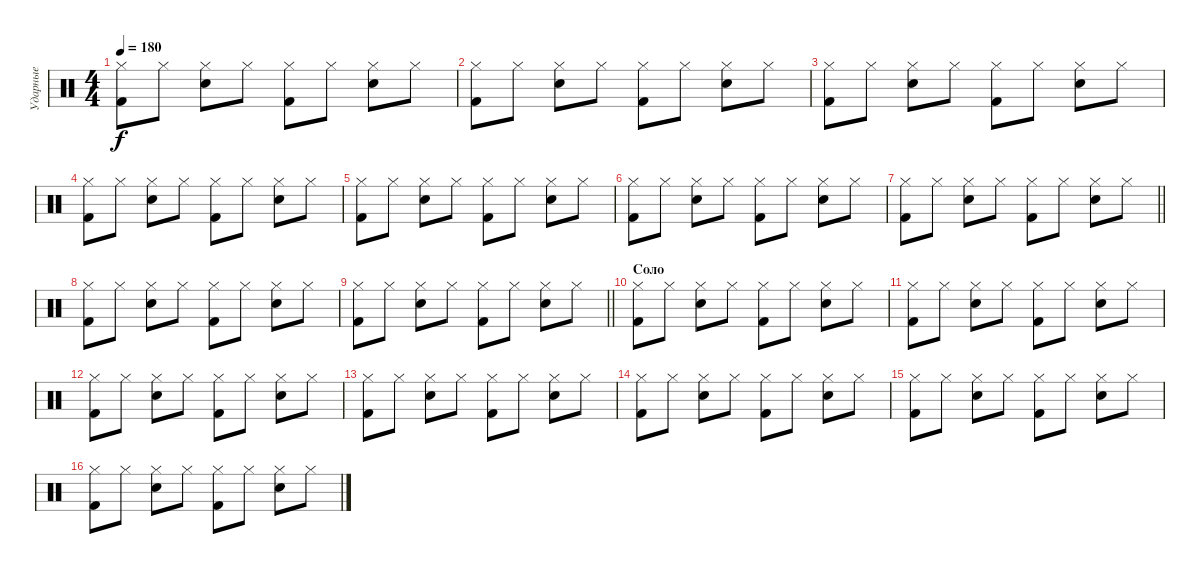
\track ("Ударные" "Ударные") {instrument percussion}
\staff {score}
\articulation defaults
\ts (4 4)
\tempo 180
\clef neutral
\ks c
("Hi-Hat (closed)" "Kick (hit) 2").8{dy f} "Hi-Hat (closed)".8 ("Hi-Hat (closed)" "Electric Snare (hit)").8 "Hi-Hat (closed)".8 ("Hi-Hat (closed)" "Kick (hit) 2").8 "Hi-Hat (closed)".8 ("Hi-Hat (closed)" "Electric Snare (hit)").8 "Hi-Hat (closed)".8 |
("Hi-Hat (closed)" "Kick (hit) 2").8 "Hi-Hat (closed)".8 ("Hi-Hat (closed)" "Electric Snare (hit)").8 "Hi-Hat (closed)".8 ("Hi-Hat (closed)" "Kick (hit) 2").8 "Hi-Hat (closed)".8 ("Hi-Hat (closed)" "Electric Snare (hit)").8 "Hi-Hat (closed)".8 |
("Hi-Hat (closed)" "Kick (hit) 2").8 "Hi-Hat (closed)".8 ("Hi-Hat (closed)" "Electric Snare (hit)").8 "Hi-Hat (closed)".8 ("Hi-Hat (closed)" "Kick (hit) 2").8 "Hi-Hat (closed)".8 ("Hi-Hat (closed)" "Electric Snare (hit)").8 "Hi-Hat (closed)".8 |
("Hi-Hat (closed)" "Kick (hit) 2").8 "Hi-Hat (closed)".8 ("Hi-Hat (closed)" "Electric Snare (hit)").8 "Hi-Hat (closed)".8 ("Hi-Hat (closed)" "Kick (hit) 2").8 "Hi-Hat (closed)".8 ("Hi-Hat (closed)" "Electric Snare (hit)").8 "Hi-Hat (closed)".8 |
("Hi-Hat (closed)" "Kick (hit) 2").8 "Hi-Hat (closed)".8 ("Hi-Hat (closed)" "Electric Snare (hit)").8 "Hi-Hat (closed)".8 ("Hi-Hat (closed)" "Kick (hit) 2").8 "Hi-Hat (closed)".8 ("Hi-Hat (closed)" "Electric Snare (hit)").8 "Hi-Hat (closed)".8 |
("Hi-Hat (closed)" "Kick (hit) 2").8 "Hi-Hat (closed)".8 ("Hi-Hat (closed)" "Electric Snare (hit)").8 "Hi-Hat (closed)".8 ("Hi-Hat (closed)" "Kick (hit) 2").8 "Hi-Hat (closed)".8 ("Hi-Hat (closed)" "Electric Snare (hit)").8 "Hi-Hat (closed)".8 |
\barLineRight lightlight
("Hi-Hat (closed)" "Kick (hit) 2").8 "Hi-Hat (closed)".8 ("Hi-Hat (closed)" "Electric Snare (hit)").8 "Hi-Hat (closed)".8 ("Hi-Hat (closed)" "Kick (hit) 2").8 "Hi-Hat (closed)".8 ("Hi-Hat (closed)" "Electric Snare (hit)").8 "Hi-Hat (closed)".8 |
("Hi-Hat (closed)" "Kick (hit) 2").8 "Hi-Hat (closed)".8 ("Hi-Hat (closed)" "Electric Snare (hit)").8 "Hi-Hat (closed)".8 ("Hi-Hat (closed)" "Kick (hit) 2").8 "Hi-Hat (closed)".8 ("Hi-Hat (closed)" "Electric Snare (hit)").8 "Hi-Hat (closed)".8 |
\barLineRight lightlight
("Hi-Hat (closed)" "Kick (hit) 2").8 "Hi-Hat (closed)".8 ("Hi-Hat (closed)" "Electric Snare (hit)").8 "Hi-Hat (closed)".8 ("Hi-Hat (closed)" "Kick (hit) 2").8 "Hi-Hat (closed)".8 ("Hi-Hat (closed)" "Electric Snare (hit)").8 "Hi-Hat (closed)".8 |
\section ("" "Соло")
("Hi-Hat (closed)" "Kick (hit) 2").8 "Hi-Hat (closed)".8 ("Hi-Hat (closed)" "Electric Snare (hit)").8 "Hi-Hat (closed)".8 ("Hi-Hat (closed)" "Kick (hit) 2").8 "Hi-Hat (closed)".8 ("Hi-Hat (closed)" "Electric Snare (hit)").8 "Hi-Hat (closed)".8 |
("Hi-Hat (closed)" "Kick (hit) 2").8 "Hi-Hat (closed)".8 ("Hi-Hat (closed)" "Electric Snare (hit)").8 "Hi-Hat (closed)".8 ("Hi-Hat (closed)" "Kick (hit) 2").8 "Hi-Hat (closed)".8 ("Hi-Hat (closed)" "Electric Snare (hit)").8 "Hi-Hat (closed)".8 |
("Hi-Hat (closed)" "Kick (hit) 2").8 "Hi-Hat (closed)".8 ("Hi-Hat (closed)" "Electric Snare (hit)").8 "Hi-Hat (closed)".8 ("Hi-Hat (closed)" "Kick (hit) 2").8 "Hi-Hat (closed)".8 ("Hi-Hat (closed)" "Electric Snare (hit)").8 "Hi-Hat (closed)".8 |
("Hi-Hat (closed)" "Kick (hit) 2").8 "Hi-Hat (closed)".8 ("Hi-Hat (closed)" "Electric Snare (hit)").8 "Hi-Hat (closed)".8 ("Hi-Hat (closed)" "Kick (hit) 2").8 "Hi-Hat (closed)".8 ("Hi-Hat (closed)" "Electric Snare (hit)").8 "Hi-Hat (closed)".8 |
("Hi-Hat (closed)" "Kick (hit) 2").8 "Hi-Hat (closed)".8 ("Hi-Hat (closed)" "Electric Snare (hit)").8 "Hi-Hat (closed)".8 ("Hi-Hat (closed)" "Kick (hit) 2").8 "Hi-Hat (closed)".8 ("Hi-Hat (closed)" "Electric Snare (hit)").8 "Hi-Hat (closed)".8 |
("Hi-Hat (closed)" "Kick (hit) 2").8 "Hi-Hat (closed)".8 ("Hi-Hat (closed)" "Electric Snare (hit)").8 "Hi-Hat (closed)".8 ("Hi-Hat (closed)" "Kick (hit) 2").8 "Hi-Hat (closed)".8 ("Hi-Hat (closed)" "Electric Snare (hit)").8 "Hi-Hat (closed)".8 |
("Hi-Hat (closed)" "Kick (hit) 2").8 "Hi-Hat (closed)".8 ("Hi-Hat (closed)" "Electric Snare (hit)").8 "Hi-Hat (closed)".8 ("Hi-Hat (closed)" "Kick (hit) 2").8 "Hi-Hat (closed)".8 ("Hi-Hat (closed)" "Electric Snare (hit)").8 "Hi-Hat (closed)".8
